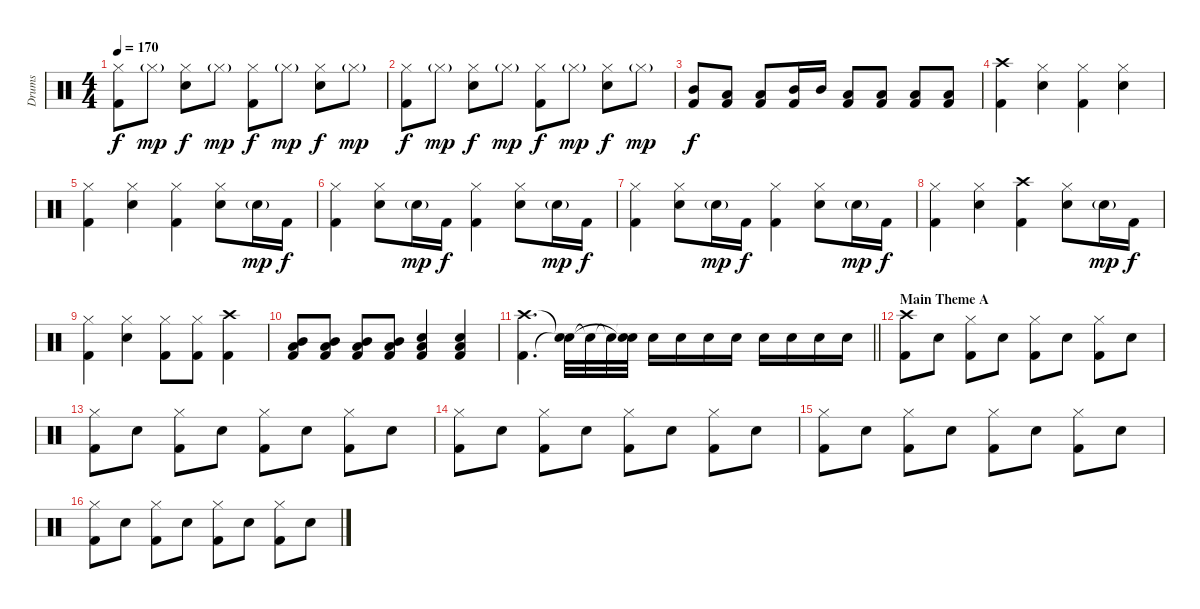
\track ("Drums" "Drums") {instrument percussion}
\staff {score}
\articulation defaults
\ts (4 4)
\tempo 170
\clef neutral
\ks c
("Hi-Hat (closed)" "Kick (hit) 2").8{dy f} "Hi-Hat (closed)"{g}.8{dy mp} ("Hi-Hat (closed)" "Electric Snare (hit)").8{dy f} "Hi-Hat (closed)"{g}.8{dy mp} ("Hi-Hat (closed)" "Kick (hit) 2").8{dy f} "Hi-Hat (closed)"{g}.8{dy mp} ("Hi-Hat (closed)" "Electric Snare (hit)").8{dy f} "Hi-Hat (closed)"{g}.8{dy mp} |
("Hi-Hat (closed)" "Kick (hit) 2").8{dy f} "Hi-Hat (closed)"{g}.8{dy mp} ("Hi-Hat (closed)" "Electric Snare (hit)").8{dy f} "Hi-Hat (closed)"{g}.8{dy mp} ("Hi-Hat (closed)" "Kick (hit) 2").8{dy f} "Hi-Hat (closed)"{g}.8{dy mp} ("Hi-Hat (closed)" "Electric Snare (hit)").8{dy f} "Hi-Hat (closed)"{g}.8{dy mp} |
("Mid Tom (hit)" "Kick (hit) 2").8{dy f} ("Low Tom (hit)" "Kick (hit) 2").8 ("Low Tom (hit)" "Kick (hit) 2").8 ("Mid Tom (hit)" "Kick (hit) 2").16 "Mid Tom (hit)".16 ("Low Tom (hit)" "Kick (hit) 2").8 ("Low Tom (hit)" "Kick (hit) 2").8 ("Low Tom (hit)" "Kick (hit) 2").8 ("Low Tom (hit)" "Kick (hit) 2").8 |
("Crash high (hit)" "Kick (hit) 2").4 ("Hi-Hat (closed)" "Electric Snare (hit)").4 ("Hi-Hat (closed)" "Kick (hit) 2").4 ("Hi-Hat (closed)" "Electric Snare (hit)").4 |
("Hi-Hat (closed)" "Kick (hit) 2").4 ("Hi-Hat (closed)" "Electric Snare (hit)").4 ("Hi-Hat (closed)" "Kick (hit) 2").4 ("Hi-Hat (closed)" "Electric Snare (hit)").8 "Electric Snare (hit)"{g}.16{dy mp} "Kick (hit) 2".16{dy f} |
("Hi-Hat (closed)" "Kick (hit) 2").4 ("Hi-Hat (closed)" "Electric Snare (hit)").8 "Electric Snare (hit)"{g}.16{dy mp} "Kick (hit) 2".16{dy f} ("Hi-Hat (closed)" "Kick (hit) 2").4 ("Hi-Hat (closed)" "Electric Snare (hit)").8 "Electric Snare (hit)"{g}.16{dy mp} "Kick (hit) 2".16{dy f} |
("Hi-Hat (closed)" "Kick (hit) 2").4 ("Hi-Hat (closed)" "Electric Snare (hit)").8 "Electric Snare (hit)"{g}.16{dy mp} "Kick (hit) 2".16{dy f} ("Hi-Hat (closed)" "Kick (hit) 2").4 ("Hi-Hat (closed)" "Electric Snare (hit)").8 "Electric Snare (hit)"{g}.16{dy mp} "Kick (hit) 2".16{dy f} |
("Hi-Hat (closed)" "Kick (hit) 2").4 ("Hi-Hat (closed)" "Electric Snare (hit)").4 ("Crash high (hit)" "Kick (hit) 2").4 ("Hi-Hat (closed)" "Electric Snare (hit)").8 "Electric Snare (hit)"{g}.16{dy mp} "Kick (hit) 2".16{dy f} |
("Hi-Hat (closed)" "Kick (hit) 2").4 ("Hi-Hat (closed)" "Electric Snare (hit)").4 ("Hi-Hat (closed)" "Kick (hit) 2").8 ("Hi-Hat (closed)" "Kick (hit) 2").8 ("Crash high (hit)" "Kick (hit) 2").4 |
("Mid Tom (hit)" "Low Tom (hit)" "Kick (hit) 2").8 ("Mid Tom (hit)" "Low Tom (hit)" "Kick (hit) 2").8 ("Mid Tom (hit)" "Low Tom (hit)" "Kick (hit) 2").8 ("Mid Tom (hit)" "Low Tom (hit)" "Kick (hit) 2").8 ("Low Tom (hit)" "Electric Snare (hit)" "Kick (hit) 2").4 ("Low Tom (hit)" "Electric Snare (hit)" "Kick (hit) 2").4 |
\barLineRight lightlight
("Crash high (hit)" "Kick (hit) 2").4{d} ("Snare (hit)"{t} "Snare (hit)"{t}).32 "Snare (hit)"{t}.32 "Snare (hit)"{t}.32 ("Snare (hit)"{t} "Snare (hit)"{t}).32{volume 5} "Electric Snare (hit)".16{volume 10} "Electric Snare (hit)".16 "Electric Snare (hit)".16 "Electric Snare (hit)".16 "Electric Snare (hit)".16 "Electric Snare (hit)".16 "Electric Snare (hit)".16 "Electric Snare (hit)".16 |
\section ("" "Main Theme A")
("Crash high (hit)" "Kick (hit) 2").8{volume 11} "Electric Snare (hit)".8 ("Hi-Hat (closed)" "Kick (hit) 2").8 "Electric Snare (hit)".8 ("Hi-Hat (closed)" "Kick (hit) 2").8 "Electric Snare (hit)".8 ("Hi-Hat (closed)" "Kick (hit) 2").8 "Electric Snare (hit)".8 |
("Hi-Hat (closed)" "Kick (hit) 2").8 "Electric Snare (hit)".8 ("Hi-Hat (closed)" "Kick (hit) 2").8 "Electric Snare (hit)".8 ("Hi-Hat (closed)" "Kick (hit) 2").8 "Electric Snare (hit)".8 ("Hi-Hat (closed)" "Kick (hit) 2").8 "Electric Snare (hit)".8 |
("Hi-Hat (closed)" "Kick (hit) 2").8 "Electric Snare (hit)".8 ("Hi-Hat (closed)" "Kick (hit) 2").8 "Electric Snare (hit)".8 ("Hi-Hat (closed)" "Kick (hit) 2").8 "Electric Snare (hit)".8 ("Hi-Hat (closed)" "Kick (hit) 2").8 "Electric Snare (hit)".8 |
("Hi-Hat (closed)" "Kick (hit) 2").8 "Electric Snare (hit)".8 ("Hi-Hat (closed)" "Kick (hit) 2").8 "Electric Snare (hit)".8 ("Hi-Hat (closed)" "Kick (hit) 2").8 "Electric Snare (hit)".8 ("Hi-Hat (closed)" "Kick (hit) 2").8 "Electric Snare (hit)".8 |
("Hi-Hat (closed)" "Kick (hit) 2").8 "Electric Snare (hit)".8 ("Hi-Hat (closed)" "Kick (hit) 2").8 "Electric Snare (hit)".8 ("Hi-Hat (closed)" "Kick (hit) 2").8 "Electric Snare (hit)".8 ("Hi-Hat (closed)" "Kick (hit) 2").8 "Electric Snare (hit)".8
